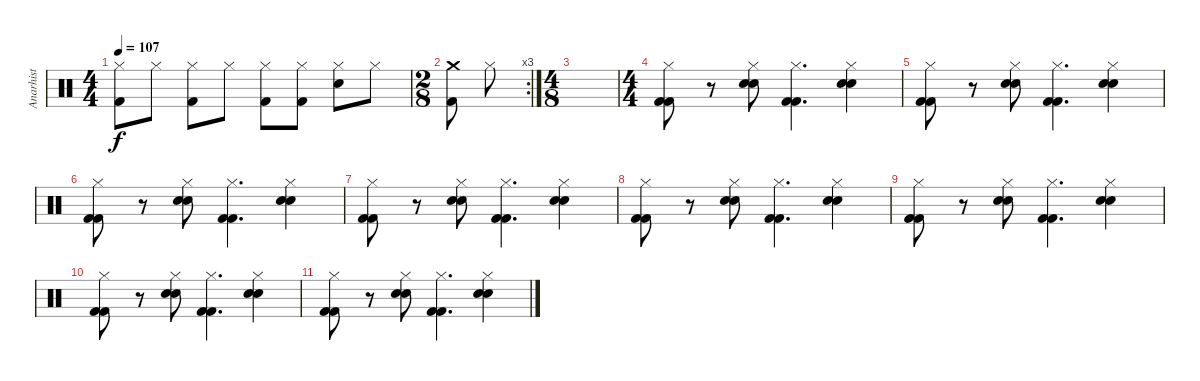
\track ("Anarhist" "Anarhist") {instrument percussion}
\staff {score}
\articulation defaults
\ts (4 4)
\tempo 107
\clef neutral
\ks c
("Kick (hit) 2" "Hi-Hat (closed)").8{dy f} "Hi-Hat (closed)".8 ("Kick (hit) 2" "Hi-Hat (closed)").8 "Hi-Hat (closed)".8 ("Kick (hit) 2" "Hi-Hat (closed)").8 ("Kick (hit) 2" "Hi-Hat (closed)").8 ("Snare (hit) 2" "Hi-Hat (closed)").8 "Hi-Hat (closed)".8 |
\rc 3
\ts (2 8)
("Crash medium (hit)" "Kick (hit) 2").8 "Hi-Hat (closed)".8 |
\ts (4 8)
|
\ts (4 4)
("Kick (hit) 2" "Kick (hit) 2" "Hi-Hat (closed)").8 r.8 ("Snare (hit) 2" "Snare (hit) 2" "Hi-Hat (closed)").8 ("Kick (hit) 2" "Kick (hit) 2" "Hi-Hat (closed)").4{d} ("Snare (hit) 2" "Snare (hit) 2" "Hi-Hat (closed)").4 |
("Kick (hit) 2" "Kick (hit) 2" "Hi-Hat (closed)").8 r.8 ("Snare (hit) 2" "Snare (hit) 2" "Hi-Hat (closed)").8 ("Kick (hit) 2" "Kick (hit) 2" "Hi-Hat (closed)").4{d} ("Snare (hit) 2" "Snare (hit) 2" "Hi-Hat (closed)").4 |
("Kick (hit) 2" "Kick (hit) 2" "Hi-Hat (closed)").8 r.8 ("Snare (hit) 2" "Snare (hit) 2" "Hi-Hat (closed)").8 ("Kick (hit) 2" "Kick (hit) 2" "Hi-Hat (closed)").4{d} ("Snare (hit) 2" "Snare (hit) 2" "Hi-Hat (closed)").4 |
("Kick (hit) 2" "Kick (hit) 2" "Hi-Hat (closed)").8 r.8 ("Snare (hit) 2" "Snare (hit) 2" "Hi-Hat (closed)").8 ("Kick (hit) 2" "Kick (hit) 2" "Hi-Hat (closed)").4{d} ("Snare (hit) 2" "Snare (hit) 2" "Hi-Hat (closed)").4 |
("Kick (hit) 2" "Kick (hit) 2" "Hi-Hat (closed)").8 r.8 ("Snare (hit) 2" "Snare (hit) 2" "Hi-Hat (closed)").8 ("Kick (hit) 2" "Kick (hit) 2" "Hi-Hat (closed)").4{d} ("Snare (hit) 2" "Snare (hit) 2" "Hi-Hat (closed)").4 |
("Kick (hit) 2" "Kick (hit) 2" "Hi-Hat (closed)").8 r.8 ("Snare (hit) 2" "Snare (hit) 2" "Hi-Hat (closed)").8 ("Kick (hit) 2" "Kick (hit) 2" "Hi-Hat (closed)").4{d} ("Snare (hit) 2" "Snare (hit) 2" "Hi-Hat (closed)").4 |
("Kick (hit) 2" "Kick (hit) 2" "Hi-Hat (closed)").8 r.8 ("Snare (hit) 2" "Snare (hit) 2" "Hi-Hat (closed)").8 ("Kick (hit) 2" "Kick (hit) 2" "Hi-Hat (closed)").4{d} ("Snare (hit) 2" "Snare (hit) 2" "Hi-Hat (closed)").4 |
("Kick (hit) 2" "Kick (hit) 2" "Hi-Hat (closed)").8 r.8 ("Snare (hit) 2" "Snare (hit) 2" "Hi-Hat (closed)").8 ("Kick (hit) 2" "Kick (hit) 2" "Hi-Hat (closed)").4{d} ("Snare (hit) 2" "Snare (hit) 2" "Hi-Hat (closed)").4
